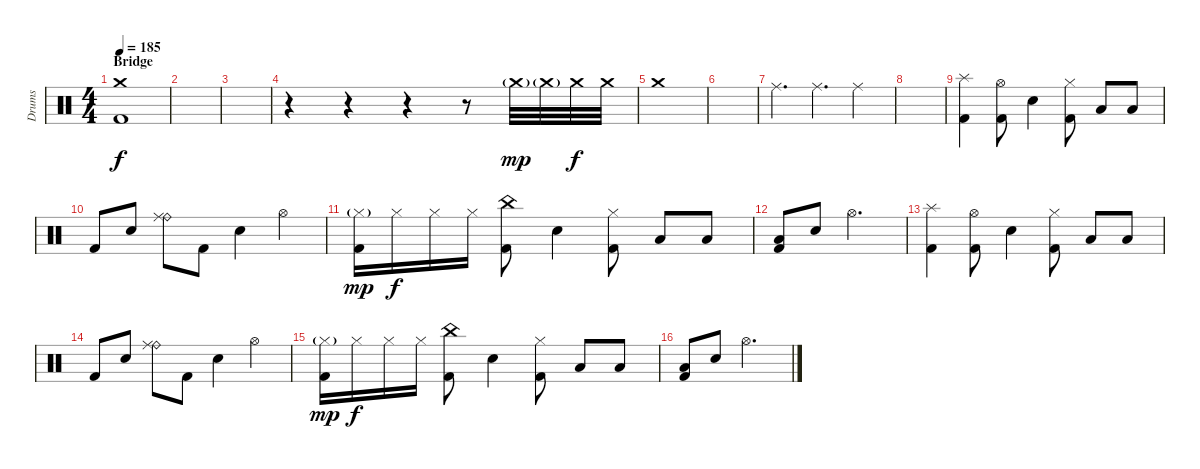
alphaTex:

\track ("Drums" "Drums") {instrument percussion}
\staff {score}
\articulation defaults
\ts (4 4)
\section ("" "Bridge")
\tempo 185
\clef neutral
\ks c
("Crash medium (hit)" "Kick (hit) 2").1{dy f} |
|
|
r.4 r.4 r.4 r.8 "Crash medium (hit)"{g}.32{dy mp} "Crash medium (hit)"{g}.32 "Crash medium (hit)".32{dy f} "Crash medium (hit)".32 |
"Crash medium (hit)".1 |
|
"Ride (middle)".4{d} "Ride (middle)".4{d} "Ride (middle)".4 |
|
("Splash (hit)" "Kick (hit) 2").4 ("Hi-Hat (open)" "Kick (hit) 2").8 "Electric Snare (hit)".4 ("Hi-Hat (closed)" "Kick (hit) 2").8 "Low Tom (hit)".8 "Low Tom (hit)".8 |
"Kick (hit) 2".8 "Electric Snare (hit)".8 ("Ride (bell)" "Ride (middle)").8 "Kick (hit) 2".8 "Electric Snare (hit)".4 "Hi-Hat (open)".4 |
("Hi-Hat (closed)"{g} "Kick (hit) 2").16{dy mp} "Hi-Hat (closed)".16{dy f} "Hi-Hat (closed)".16 "Hi-Hat (closed)".16 ("China (hit)" "Kick (hit) 2").8 "Electric Snare (hit)".4 ("Hi-Hat (closed)" "Kick (hit) 2").8 "Low Tom (hit)".8 "Low Tom (hit)".8 |
("Low Floor Tom (hit)" "Kick (hit) 2").8 "Electric Snare (hit)".8 "Hi-Hat (open)".2{d} |
("Splash (hit)" "Kick (hit) 2").4 ("Hi-Hat (open)" "Kick (hit) 2").8 "Electric Snare (hit)".4 ("Hi-Hat (closed)" "Kick (hit) 2").8 "Low Tom (hit)".8 "Low Tom (hit)".8 |
"Kick (hit) 2".8 "Electric Snare (hit)".8 ("Ride (bell)" "Ride (middle)").8 "Kick (hit) 2".8 "Electric Snare (hit)".4 "Hi-Hat (open)".4 |
("Hi-Hat (closed)"{g} "Kick (hit) 2").16{dy mp} "Hi-Hat (closed)".16{dy f} "Hi-Hat (closed)".16 "Hi-Hat (closed)".16 ("China (hit)" "Kick (hit) 2").8 "Electric Snare (hit)".4 ("Hi-Hat (closed)" "Kick (hit) 2").8 "Low Tom (hit)".8 "Low Tom (hit)".8 |
("Low Floor Tom (hit)" "Kick (hit) 2").8 "Electric Snare (hit)".8 "Hi-Hat (open)".2{d}
